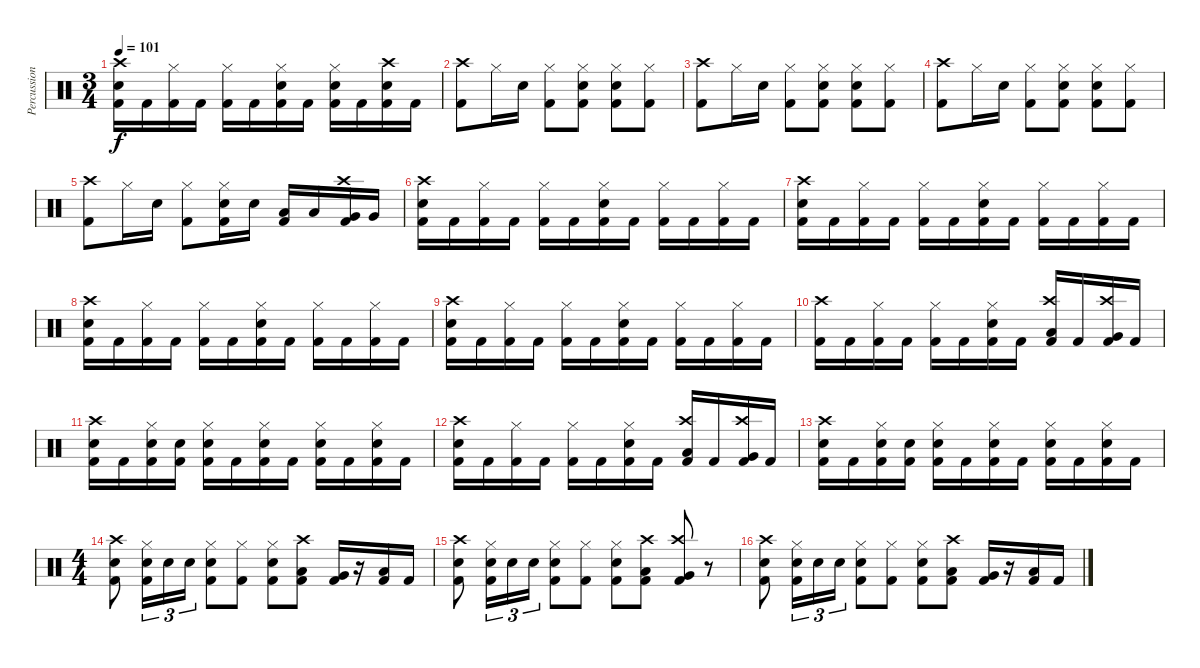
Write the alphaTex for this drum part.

\track ("Percussion" "Percussion") {instrument percussion}
\staff {score}
\articulation defaults
\ts (3 4)
\tempo 101
\clef neutral
\ks c
("Kick (hit) 2" "Snare (hit) 2" "Crash high (hit)").16{dy f} "Kick (hit) 2".16 ("Kick (hit) 2" "Hi-Hat (closed)").16 "Kick (hit) 2".16 ("Kick (hit) 2" "Hi-Hat (closed)").16 "Kick (hit) 2".16 ("Kick (hit) 2" "Snare (hit) 2" "Hi-Hat (closed)").16 "Kick (hit) 2".16 ("Kick (hit) 2" "Snare (hit) 2" "Hi-Hat (closed)").16 "Kick (hit) 2".16 ("Kick (hit) 2" "Snare (hit) 2" "Crash high (hit)").16 "Kick (hit) 2".16 |
("Kick (hit) 2" "Crash high (hit)").8 "Hi-Hat (closed)".16 "Snare (hit) 2".16 ("Kick (hit) 2" "Hi-Hat (closed)").8 ("Kick (hit) 2" "Snare (hit) 2" "Hi-Hat (closed)").8 ("Kick (hit) 2" "Snare (hit) 2" "Hi-Hat (closed)").8 ("Kick (hit) 2" "Hi-Hat (closed)").8 |
("Kick (hit) 2" "Crash high (hit)").8 "Hi-Hat (closed)".16 "Snare (hit) 2".16 ("Kick (hit) 2" "Hi-Hat (closed)").8 ("Kick (hit) 2" "Snare (hit) 2" "Hi-Hat (closed)").8 ("Kick (hit) 2" "Snare (hit) 2" "Hi-Hat (closed)").8 ("Kick (hit) 2" "Hi-Hat (closed)").8 |
("Kick (hit) 2" "Crash high (hit)").8 "Hi-Hat (closed)".16 "Snare (hit) 2".16 ("Kick (hit) 2" "Hi-Hat (closed)").8 ("Kick (hit) 2" "Snare (hit) 2" "Hi-Hat (closed)").8 ("Kick (hit) 2" "Snare (hit) 2" "Hi-Hat (closed)").8 ("Kick (hit) 2" "Hi-Hat (closed)").8 |
("Kick (hit) 2" "Crash high (hit)").8 "Hi-Hat (closed)".16 "Snare (hit) 2".16 ("Kick (hit) 2" "Hi-Hat (closed)").8 ("Kick (hit) 2" "Snare (hit) 2" "Hi-Hat (closed)").16 "Snare (hit) 2".16 ("Kick (hit) 2" "Low Tom (hit)").16 "Low Tom (hit)".16 ("Kick (hit) 2" "Very Low Tom (hit)" "Crash high (hit)").16 "Very Low Tom (hit)".16 |
("Kick (hit) 2" "Snare (hit) 2" "Crash high (hit)").16 "Kick (hit) 2".16 ("Kick (hit) 2" "Hi-Hat (closed)").16 "Kick (hit) 2".16 ("Kick (hit) 2" "Hi-Hat (closed)").16 "Kick (hit) 2".16 ("Kick (hit) 2" "Snare (hit) 2" "Hi-Hat (closed)").16 "Kick (hit) 2".16 ("Kick (hit) 2" "Hi-Hat (closed)").16 "Kick (hit) 2".16 ("Kick (hit) 2" "Hi-Hat (closed)").16 "Kick (hit) 2".16 |
("Kick (hit) 2" "Snare (hit) 2" "Crash high (hit)").16 "Kick (hit) 2".16 ("Kick (hit) 2" "Hi-Hat (closed)").16 "Kick (hit) 2".16 ("Kick (hit) 2" "Hi-Hat (closed)").16 "Kick (hit) 2".16 ("Kick (hit) 2" "Snare (hit) 2" "Hi-Hat (closed)").16 "Kick (hit) 2".16 ("Kick (hit) 2" "Hi-Hat (closed)").16 "Kick (hit) 2".16 ("Kick (hit) 2" "Hi-Hat (closed)").16 "Kick (hit) 2".16 |
("Kick (hit) 2" "Snare (hit) 2" "Crash high (hit)").16 "Kick (hit) 2".16 ("Kick (hit) 2" "Hi-Hat (closed)").16 "Kick (hit) 2".16 ("Kick (hit) 2" "Hi-Hat (closed)").16 "Kick (hit) 2".16 ("Kick (hit) 2" "Snare (hit) 2" "Hi-Hat (closed)").16 "Kick (hit) 2".16 ("Kick (hit) 2" "Hi-Hat (closed)").16 "Kick (hit) 2".16 ("Kick (hit) 2" "Hi-Hat (closed)").16 "Kick (hit) 2".16 |
("Kick (hit) 2" "Snare (hit) 2" "Crash high (hit)").16 "Kick (hit) 2".16 ("Kick (hit) 2" "Hi-Hat (closed)").16 "Kick (hit) 2".16 ("Kick (hit) 2" "Hi-Hat (closed)").16 "Kick (hit) 2".16 ("Kick (hit) 2" "Snare (hit) 2" "Hi-Hat (closed)").16 "Kick (hit) 2".16 ("Kick (hit) 2" "Hi-Hat (closed)").16 "Kick (hit) 2".16 ("Kick (hit) 2" "Hi-Hat (closed)").16 "Kick (hit) 2".16 |
("Kick (hit) 2" "Crash high (hit)").16 "Kick (hit) 2".16 ("Kick (hit) 2" "Hi-Hat (closed)").16 "Kick (hit) 2".16 ("Kick (hit) 2" "Hi-Hat (closed)").16 "Kick (hit) 2".16 ("Kick (hit) 2" "Snare (hit) 2" "Hi-Hat (closed)").16 "Kick (hit) 2".16 ("Kick (hit) 2" "Low Tom (hit)" "Crash high (hit)").16 "Kick (hit) 2".16 ("Kick (hit) 2" "Very Low Tom (hit)" "Crash high (hit)").16 "Kick (hit) 2".16 |
("Kick (hit) 2" "Snare (hit) 2" "Crash high (hit)").16 "Kick (hit) 2".16 ("Kick (hit) 2" "Snare (hit) 2" "Hi-Hat (closed)").16 ("Kick (hit) 2" "Snare (hit) 2").16 ("Kick (hit) 2" "Snare (hit) 2" "Hi-Hat (closed)").16 "Kick (hit) 2".16 ("Kick (hit) 2" "Snare (hit) 2" "Hi-Hat (closed)").16 "Kick (hit) 2".16 ("Kick (hit) 2" "Snare (hit) 2" "Hi-Hat (closed)").16 "Kick (hit) 2".16 ("Kick (hit) 2" "Snare (hit) 2" "Hi-Hat (closed)").16 "Kick (hit) 2".16 |
("Kick (hit) 2" "Snare (hit) 2" "Crash high (hit)").16 "Kick (hit) 2".16 ("Kick (hit) 2" "Hi-Hat (closed)").16 "Kick (hit) 2".16 ("Kick (hit) 2" "Hi-Hat (closed)").16 "Kick (hit) 2".16 ("Kick (hit) 2" "Snare (hit) 2" "Hi-Hat (closed)").16 "Kick (hit) 2".16 ("Kick (hit) 2" "Low Tom (hit)" "Crash high (hit)").16 "Kick (hit) 2".16 ("Kick (hit) 2" "Very Low Tom (hit)" "Crash high (hit)").16 "Kick (hit) 2".16 |
("Kick (hit) 2" "Snare (hit) 2" "Crash high (hit)").16 "Kick (hit) 2".16 ("Kick (hit) 2" "Snare (hit) 2" "Hi-Hat (closed)").16 ("Kick (hit) 2" "Snare (hit) 2").16 ("Kick (hit) 2" "Snare (hit) 2" "Hi-Hat (closed)").16 "Kick (hit) 2".16 ("Kick (hit) 2" "Snare (hit) 2" "Hi-Hat (closed)").16 "Kick (hit) 2".16 ("Kick (hit) 2" "Snare (hit) 2" "Hi-Hat (closed)").16 "Kick (hit) 2".16 ("Kick (hit) 2" "Snare (hit) 2" "Hi-Hat (closed)").16 "Kick (hit) 2".16 |
\ts (4 4)
("Kick (hit) 2" "Snare (hit) 2" "Crash high (hit)").8 ("Kick (hit) 2" "Snare (hit) 2" "Hi-Hat (closed)").16{tu (3 2)} "Snare (hit) 2".16{tu (3 2)} "Snare (hit) 2".16{tu (3 2)} ("Kick (hit) 2" "Snare (hit) 2" "Hi-Hat (closed)").8 ("Kick (hit) 2" "Hi-Hat (closed)").8 ("Kick (hit) 2" "Snare (hit) 2" "Hi-Hat (closed)").8 ("Kick (hit) 2" "Low Tom (hit)" "Crash high (hit)").8 ("Kick (hit) 2" "Very Low Tom (hit)").16 r.16 ("Kick (hit) 2" "Low Floor Tom (hit)").16 "Kick (hit) 2".16 |
("Kick (hit) 2" "Snare (hit) 2" "Crash high (hit)").8 ("Kick (hit) 2" "Snare (hit) 2" "Hi-Hat (closed)").16{tu (3 2)} "Snare (hit) 2".16{tu (3 2)} "Snare (hit) 2".16{tu (3 2)} ("Kick (hit) 2" "Snare (hit) 2" "Hi-Hat (closed)").8 ("Kick (hit) 2" "Hi-Hat (closed)").8 ("Kick (hit) 2" "Snare (hit) 2" "Hi-Hat (closed)").8 ("Kick (hit) 2" "Low Tom (hit)" "Crash high (hit)").8 ("Kick (hit) 2" "Very Low Tom (hit)" "Crash high (hit)").8 r.8 |
("Kick (hit) 2" "Snare (hit) 2" "Crash high (hit)").8 ("Kick (hit) 2" "Snare (hit) 2" "Hi-Hat (closed)").16{tu (3 2)} "Snare (hit) 2".16{tu (3 2)} "Snare (hit) 2".16{tu (3 2)} ("Kick (hit) 2" "Snare (hit) 2" "Hi-Hat (closed)").8 ("Kick (hit) 2" "Hi-Hat (closed)").8 ("Kick (hit) 2" "Snare (hit) 2" "Hi-Hat (closed)").8 ("Kick (hit) 2" "Low Tom (hit)" "Crash high (hit)").8 ("Kick (hit) 2" "Very Low Tom (hit)").16 r.16 ("Kick (hit) 2" "Low Floor Tom (hit)").16 "Kick (hit) 2".16
